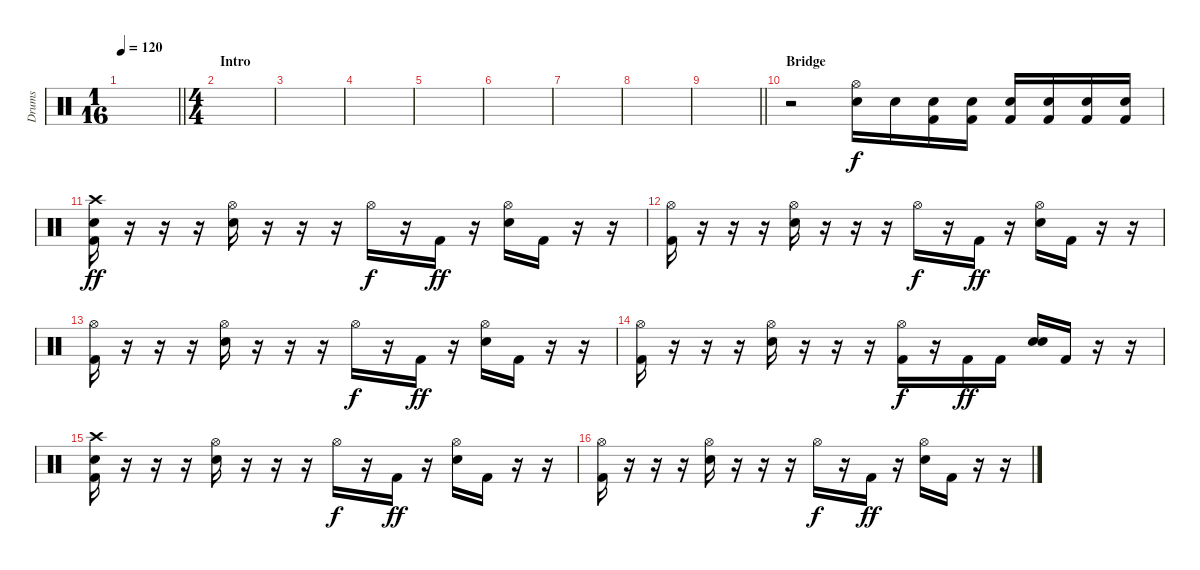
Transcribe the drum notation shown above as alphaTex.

\track ("Drums" "Drums") {instrument percussion}
\staff {score}
\articulation defaults
\ts (1 16)
\tempo 120
\clef neutral
\barLineRight lightlight
\ks c
|
\ts (4 4)
\section ("" "Intro")
|
|
|
|
|
|
|
\barLineRight lightlight
|
\section ("" "Bridge")
r.2 ("Hi-Hat (open)" "Electric Snare (hit)").16 "Electric Snare (hit)".16 ("Kick (hit) 2" "Electric Snare (hit)").16 ("Kick (hit) 2" "Electric Snare (hit)").16 ("Kick (hit) 2" "Electric Snare (hit)").16{dy f} ("Kick (hit) 2" "Electric Snare (hit)").16 ("Kick (hit) 2" "Electric Snare (hit)").16 ("Kick (hit) 2" "Electric Snare (hit)").16 |
("Crash high (hit)" "Electric Snare (hit)" "Kick (hit) 2").16{dy ff} r.16 r.16 r.16 ("Hi-Hat (open)" "Electric Snare (hit)").16 r.16 r.16 r.16 "Hi-Hat (open)".16{dy f} r.16 "Kick (hit) 2".16{dy ff} r.16 ("Hi-Hat (open)" "Electric Snare (hit)").16 "Kick (hit) 2".16 r.16 r.16 |
("Hi-Hat (open)" "Kick (hit) 2").16 r.16 r.16 r.16 ("Hi-Hat (open)" "Electric Snare (hit)").16 r.16 r.16 r.16 "Hi-Hat (open)".16{dy f} r.16 "Kick (hit) 2".16{dy ff} r.16 ("Hi-Hat (open)" "Electric Snare (hit)").16 "Kick (hit) 2".16 r.16 r.16 |
("Hi-Hat (open)" "Kick (hit) 2").16 r.16 r.16 r.16 ("Hi-Hat (open)" "Electric Snare (hit)").16 r.16 r.16 r.16 "Hi-Hat (open)".16{dy f} r.16 "Kick (hit) 2".16{dy ff} r.16 ("Hi-Hat (open)" "Electric Snare (hit)").16 "Kick (hit) 2".16 r.16 r.16 |
("Hi-Hat (open)" "Kick (hit) 2").16 r.16 r.16 r.16 ("Hi-Hat (open)" "Electric Snare (hit)").16 r.16 r.16 r.16 ("Hi-Hat (open)" "Kick (hit) 2").16{dy f} r.16 "Kick (hit) 2".16{dy ff} "Kick (hit) 2".16 ("Snare (hit) 2" "Electric Snare (hit)").16 "Kick (hit) 2".16 r.16 r.16 |
("Crash high (hit)" "Electric Snare (hit)" "Kick (hit) 2").16 r.16 r.16 r.16 ("Hi-Hat (open)" "Electric Snare (hit)").16 r.16 r.16 r.16 "Hi-Hat (open)".16{dy f} r.16 "Kick (hit) 2".16{dy ff} r.16 ("Hi-Hat (open)" "Electric Snare (hit)").16 "Kick (hit) 2".16 r.16 r.16 |
("Hi-Hat (open)" "Kick (hit) 2").16 r.16 r.16 r.16 ("Hi-Hat (open)" "Electric Snare (hit)").16 r.16 r.16 r.16 "Hi-Hat (open)".16{dy f} r.16 "Kick (hit) 2".16{dy ff} r.16 ("Hi-Hat (open)" "Electric Snare (hit)").16 "Kick (hit) 2".16 r.16 r.16
